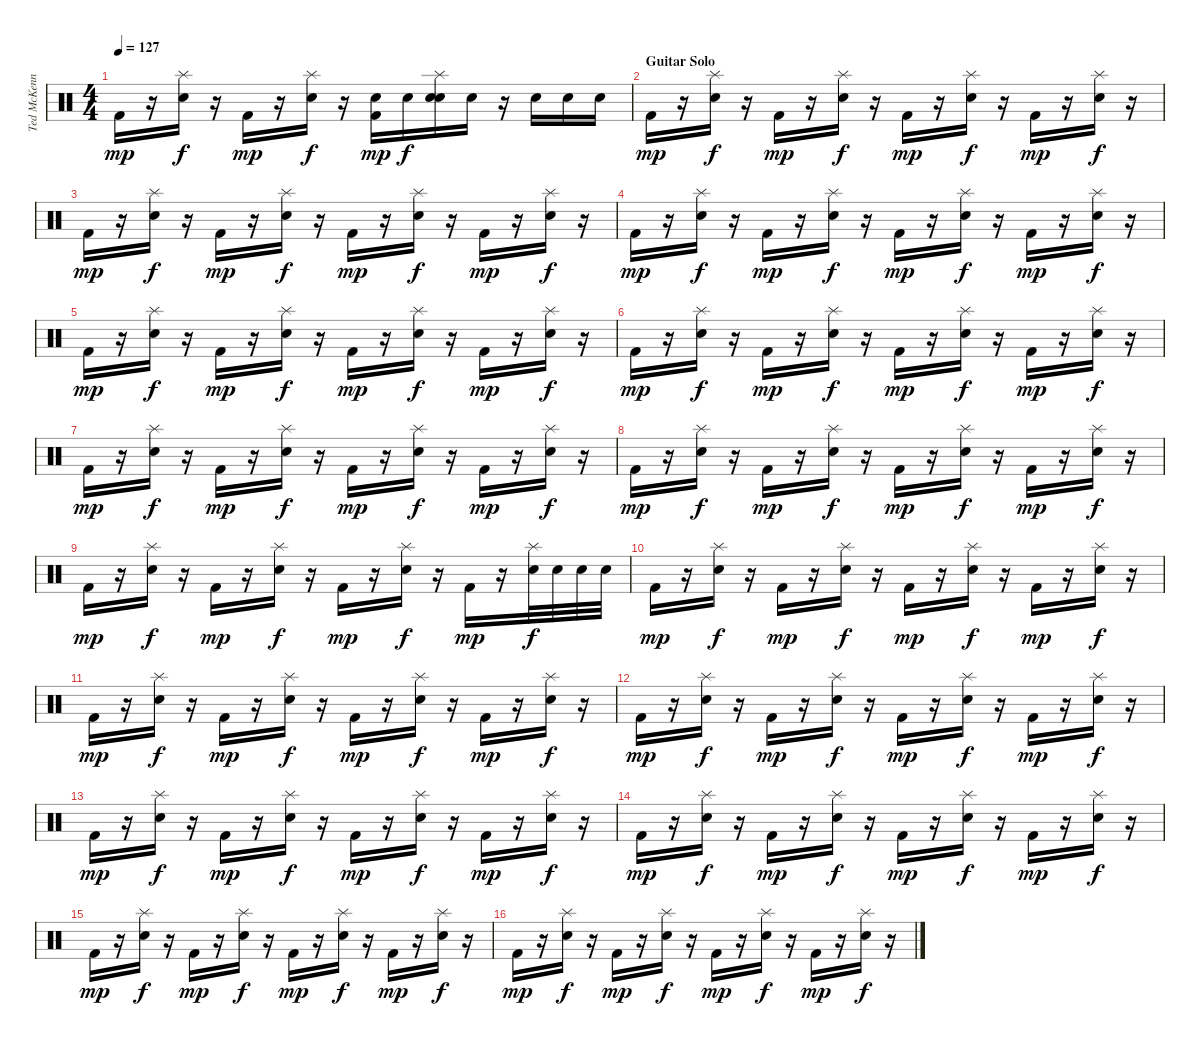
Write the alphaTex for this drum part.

\track ("Ted McKenna" "Ted McKenn") {instrument percussion}
\staff {score}
\articulation defaults
\ts (4 4)
\tempo 127
\clef neutral
\ks c "Kick (hit) 2".16{dy mp}
r.16 ("Splash (hit)" "Snare (hit) 2").16{dy f} r.16 "Kick (hit) 2".16{dy mp} r.16 ("Splash (hit)" "Snare (hit) 2").16{dy f} r.16 ("Electric Snare (hit)" "Kick (hit) 2").16{dy mp} "Electric Snare (hit)".16{dy f} ("Splash (hit)" "Snare (hit) 2" "Electric Snare (hit)").16 "Electric Snare (hit)".16 r.16 "Electric Snare (hit)".16 "Electric Snare (hit)".16 "Electric Snare (hit)".16 |
\section ("" "Guitar Solo")
"Kick (hit) 2".16{dy mp} r.16 ("Splash (hit)" "Snare (hit) 2").16{dy f} r.16 "Kick (hit) 2".16{dy mp} r.16 ("Splash (hit)" "Snare (hit) 2").16{dy f} r.16 "Kick (hit) 2".16{dy mp} r.16 ("Splash (hit)" "Snare (hit) 2").16{dy f} r.16 "Kick (hit) 2".16{dy mp} r.16 ("Splash (hit)" "Snare (hit) 2").16{dy f} r.16 |
"Kick (hit) 2".16{dy mp} r.16 ("Splash (hit)" "Snare (hit) 2").16{dy f} r.16 "Kick (hit) 2".16{dy mp} r.16 ("Splash (hit)" "Snare (hit) 2").16{dy f} r.16 "Kick (hit) 2".16{dy mp} r.16 ("Splash (hit)" "Snare (hit) 2").16{dy f} r.16 "Kick (hit) 2".16{dy mp} r.16 ("Splash (hit)" "Snare (hit) 2").16{dy f} r.16 |
"Kick (hit) 2".16{dy mp} r.16 ("Splash (hit)" "Snare (hit) 2").16{dy f} r.16 "Kick (hit) 2".16{dy mp} r.16 ("Splash (hit)" "Snare (hit) 2").16{dy f} r.16 "Kick (hit) 2".16{dy mp} r.16 ("Splash (hit)" "Snare (hit) 2").16{dy f} r.16 "Kick (hit) 2".16{dy mp} r.16 ("Splash (hit)" "Snare (hit) 2").16{dy f} r.16 |
"Kick (hit) 2".16{dy mp} r.16 ("Splash (hit)" "Snare (hit) 2").16{dy f} r.16 "Kick (hit) 2".16{dy mp} r.16 ("Splash (hit)" "Snare (hit) 2").16{dy f} r.16 "Kick (hit) 2".16{dy mp} r.16 ("Splash (hit)" "Snare (hit) 2").16{dy f} r.16 "Kick (hit) 2".16{dy mp} r.16 ("Splash (hit)" "Snare (hit) 2").16{dy f} r.16 |
"Kick (hit) 2".16{dy mp} r.16 ("Splash (hit)" "Snare (hit) 2").16{dy f} r.16 "Kick (hit) 2".16{dy mp} r.16 ("Splash (hit)" "Snare (hit) 2").16{dy f} r.16 "Kick (hit) 2".16{dy mp} r.16 ("Splash (hit)" "Snare (hit) 2").16{dy f} r.16 "Kick (hit) 2".16{dy mp} r.16 ("Splash (hit)" "Snare (hit) 2").16{dy f} r.16 |
"Kick (hit) 2".16{dy mp} r.16 ("Splash (hit)" "Snare (hit) 2").16{dy f} r.16 "Kick (hit) 2".16{dy mp} r.16 ("Splash (hit)" "Snare (hit) 2").16{dy f} r.16 "Kick (hit) 2".16{dy mp} r.16 ("Splash (hit)" "Snare (hit) 2").16{dy f} r.16 "Kick (hit) 2".16{dy mp} r.16 ("Splash (hit)" "Snare (hit) 2").16{dy f} r.16 |
"Kick (hit) 2".16{dy mp} r.16 ("Splash (hit)" "Snare (hit) 2").16{dy f} r.16 "Kick (hit) 2".16{dy mp} r.16 ("Splash (hit)" "Snare (hit) 2").16{dy f} r.16 "Kick (hit) 2".16{dy mp} r.16 ("Splash (hit)" "Snare (hit) 2").16{dy f} r.16 "Kick (hit) 2".16{dy mp} r.16 ("Splash (hit)" "Snare (hit) 2").16{dy f} r.16 |
"Kick (hit) 2".16{dy mp} r.16 ("Splash (hit)" "Snare (hit) 2").16{dy f} r.16 "Kick (hit) 2".16{dy mp} r.16 ("Splash (hit)" "Snare (hit) 2").16{dy f} r.16 "Kick (hit) 2".16{dy mp} r.16 ("Splash (hit)" "Snare (hit) 2").16{dy f} r.16 "Kick (hit) 2".16{dy mp} r.16 ("Splash (hit)" "Electric Snare (hit)").32{dy f} "Electric Snare (hit)".32 "Electric Snare (hit)".32 "Electric Snare (hit)".32 |
"Kick (hit) 2".16{dy mp} r.16 ("Splash (hit)" "Snare (hit) 2").16{dy f} r.16 "Kick (hit) 2".16{dy mp} r.16 ("Splash (hit)" "Snare (hit) 2").16{dy f} r.16 "Kick (hit) 2".16{dy mp} r.16 ("Splash (hit)" "Snare (hit) 2").16{dy f} r.16 "Kick (hit) 2".16{dy mp} r.16 ("Splash (hit)" "Snare (hit) 2").16{dy f} r.16 |
"Kick (hit) 2".16{dy mp} r.16 ("Splash (hit)" "Snare (hit) 2").16{dy f} r.16 "Kick (hit) 2".16{dy mp} r.16 ("Splash (hit)" "Snare (hit) 2").16{dy f} r.16 "Kick (hit) 2".16{dy mp} r.16 ("Splash (hit)" "Snare (hit) 2").16{dy f} r.16 "Kick (hit) 2".16{dy mp} r.16 ("Splash (hit)" "Snare (hit) 2").16{dy f} r.16 |
"Kick (hit) 2".16{dy mp} r.16 ("Splash (hit)" "Snare (hit) 2").16{dy f} r.16 "Kick (hit) 2".16{dy mp} r.16 ("Splash (hit)" "Snare (hit) 2").16{dy f} r.16 "Kick (hit) 2".16{dy mp} r.16 ("Splash (hit)" "Snare (hit) 2").16{dy f} r.16 "Kick (hit) 2".16{dy mp} r.16 ("Splash (hit)" "Snare (hit) 2").16{dy f} r.16 |
"Kick (hit) 2".16{dy mp} r.16 ("Splash (hit)" "Snare (hit) 2").16{dy f} r.16 "Kick (hit) 2".16{dy mp} r.16 ("Splash (hit)" "Snare (hit) 2").16{dy f} r.16 "Kick (hit) 2".16{dy mp} r.16 ("Splash (hit)" "Snare (hit) 2").16{dy f} r.16 "Kick (hit) 2".16{dy mp} r.16 ("Splash (hit)" "Snare (hit) 2").16{dy f} r.16 |
"Kick (hit) 2".16{dy mp} r.16 ("Splash (hit)" "Snare (hit) 2").16{dy f} r.16 "Kick (hit) 2".16{dy mp} r.16 ("Splash (hit)" "Snare (hit) 2").16{dy f} r.16 "Kick (hit) 2".16{dy mp} r.16 ("Splash (hit)" "Snare (hit) 2").16{dy f} r.16 "Kick (hit) 2".16{dy mp} r.16 ("Splash (hit)" "Snare (hit) 2").16{dy f} r.16 |
"Kick (hit) 2".16{dy mp} r.16 ("Splash (hit)" "Snare (hit) 2").16{dy f} r.16 "Kick (hit) 2".16{dy mp} r.16 ("Splash (hit)" "Snare (hit) 2").16{dy f} r.16 "Kick (hit) 2".16{dy mp} r.16 ("Splash (hit)" "Snare (hit) 2").16{dy f} r.16 "Kick (hit) 2".16{dy mp} r.16 ("Splash (hit)" "Snare (hit) 2").16{dy f} r.16 |
"Kick (hit) 2".16{dy mp} r.16 ("Splash (hit)" "Snare (hit) 2").16{dy f} r.16 "Kick (hit) 2".16{dy mp} r.16 ("Splash (hit)" "Snare (hit) 2").16{dy f} r.16 "Kick (hit) 2".16{dy mp} r.16 ("Splash (hit)" "Snare (hit) 2").16{dy f} r.16 "Kick (hit) 2".16{dy mp} r.16 ("Splash (hit)" "Snare (hit) 2").16{dy f} r.16
